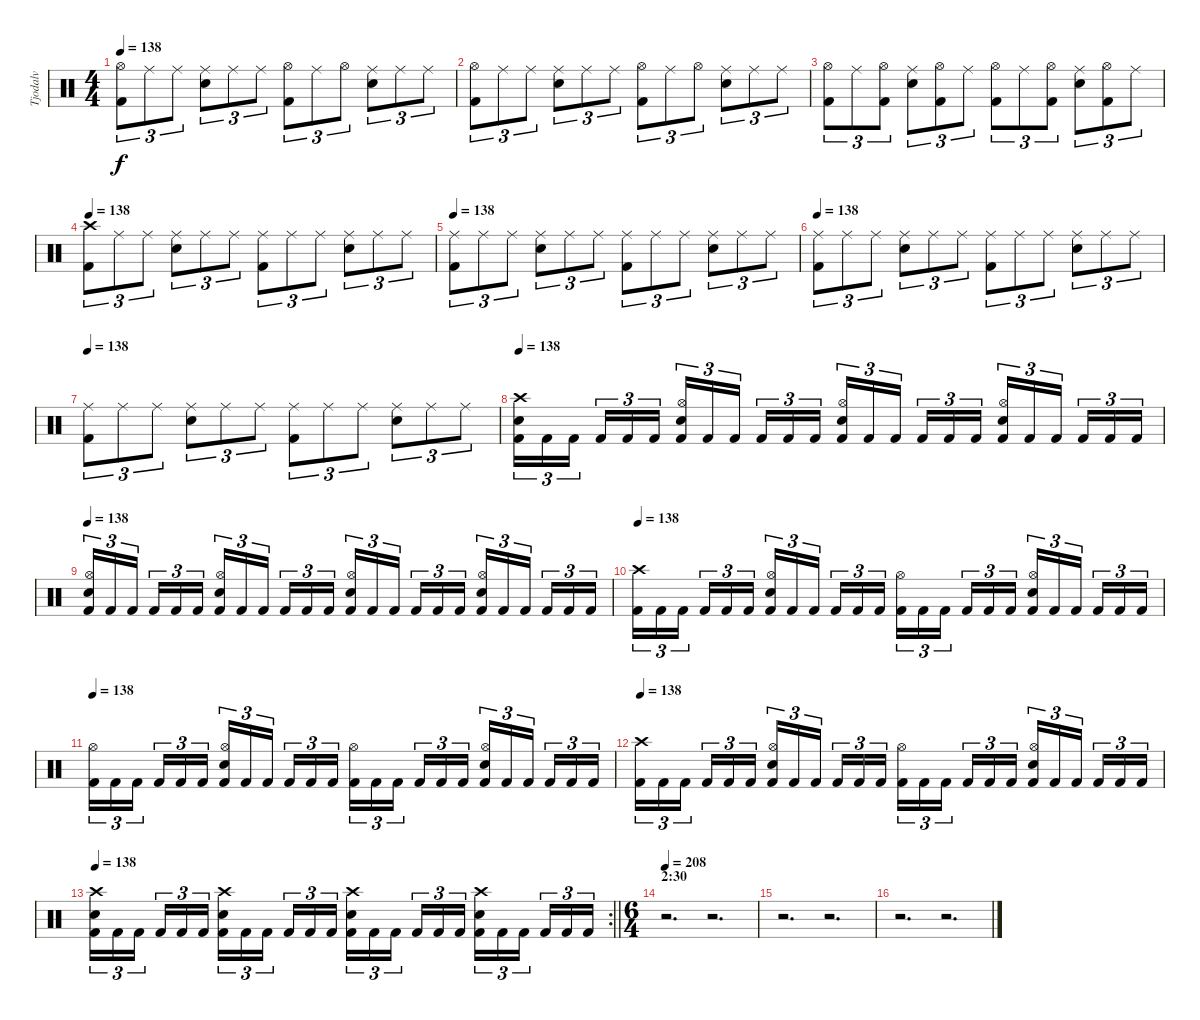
\track ("Tjodalv" "Tjodalv") {instrument percussion}
\staff {score}
\articulation defaults
\ts (4 4)
\tempo 138
\clef neutral
\ks c
("Kick (hit) 2" "Hi-Hat (open)").8{tu (3 2) dy f} "Ride (middle)".8{tu (3 2)} "Ride (middle)".8{tu (3 2)} ("Snare (hit) 2" "Ride (middle)").8{tu (3 2)} "Ride (middle)".8{tu (3 2)} "Ride (middle)".8{tu (3 2)} ("Kick (hit) 2" "Hi-Hat (open)").8{tu (3 2)} "Ride (middle)".8{tu (3 2)} "Hi-Hat (open)".8{tu (3 2)} ("Snare (hit) 2" "Ride (middle)").8{tu (3 2)} "Ride (middle)".8{tu (3 2)} "Ride (middle)".8{tu (3 2)} |
("Kick (hit) 2" "Hi-Hat (open)").8{tu (3 2)} "Ride (middle)".8{tu (3 2)} "Ride (middle)".8{tu (3 2)} ("Snare (hit) 2" "Ride (middle)").8{tu (3 2)} "Ride (middle)".8{tu (3 2)} "Ride (middle)".8{tu (3 2)} ("Kick (hit) 2" "Hi-Hat (open)").8{tu (3 2)} "Ride (middle)".8{tu (3 2)} "Hi-Hat (open)".8{tu (3 2)} ("Snare (hit) 2" "Ride (middle)").8{tu (3 2)} "Ride (middle)".8{tu (3 2)} "Ride (middle)".8{tu (3 2)} |
("Kick (hit) 2" "Hi-Hat (open)").8{tu (3 2)} "Ride (middle)".8{tu (3 2)} ("Kick (hit) 2" "Hi-Hat (open)").8{tu (3 2)} ("Snare (hit) 2" "Ride (middle)").8{tu (3 2)} ("Kick (hit) 2" "Hi-Hat (open)").8{tu (3 2)} "Ride (middle)".8{tu (3 2)} ("Kick (hit) 2" "Hi-Hat (open)").8{tu (3 2)} "Ride (middle)".8{tu (3 2)} ("Kick (hit) 2" "Hi-Hat (open)").8{tu (3 2)} ("Snare (hit) 2" "Ride (middle)").8{tu (3 2)} ("Kick (hit) 2" "Hi-Hat (open)").8{tu (3 2)} "Ride (middle)".8{tu (3 2)} |
\tempo 138
("Kick (hit) 2" "Crash high (hit)").8{tu (3 2)} "Ride (middle)".8{tu (3 2)} "Ride (middle)".8{tu (3 2)} ("Snare (hit) 2" "Ride (middle)").8{tu (3 2)} "Ride (middle)".8{tu (3 2)} "Ride (middle)".8{tu (3 2)} ("Kick (hit) 2" "Ride (middle)").8{tu (3 2)} "Ride (middle)".8{tu (3 2)} "Ride (middle)".8{tu (3 2)} ("Snare (hit) 2" "Ride (middle)").8{tu (3 2)} "Ride (middle)".8{tu (3 2)} "Ride (middle)".8{tu (3 2)} |
\tempo 138
("Kick (hit) 2" "Ride (middle)").8{tu (3 2)} "Ride (middle)".8{tu (3 2)} "Ride (middle)".8{tu (3 2)} ("Snare (hit) 2" "Ride (middle)").8{tu (3 2)} "Ride (middle)".8{tu (3 2)} "Ride (middle)".8{tu (3 2)} ("Kick (hit) 2" "Ride (middle)").8{tu (3 2)} "Ride (middle)".8{tu (3 2)} "Ride (middle)".8{tu (3 2)} ("Snare (hit) 2" "Ride (middle)").8{tu (3 2)} "Ride (middle)".8{tu (3 2)} "Ride (middle)".8{tu (3 2)} |
\tempo 138
("Kick (hit) 2" "Ride (middle)").8{tu (3 2)} "Ride (middle)".8{tu (3 2)} "Ride (middle)".8{tu (3 2)} ("Snare (hit) 2" "Ride (middle)").8{tu (3 2)} "Ride (middle)".8{tu (3 2)} "Ride (middle)".8{tu (3 2)} ("Kick (hit) 2" "Ride (middle)").8{tu (3 2)} "Ride (middle)".8{tu (3 2)} "Ride (middle)".8{tu (3 2)} ("Snare (hit) 2" "Ride (middle)").8{tu (3 2)} "Ride (middle)".8{tu (3 2)} "Ride (middle)".8{tu (3 2)} |
\tempo 138
("Kick (hit) 2" "Ride (middle)").8{tu (3 2)} "Ride (middle)".8{tu (3 2)} "Ride (middle)".8{tu (3 2)} ("Snare (hit) 2" "Ride (middle)").8{tu (3 2)} "Ride (middle)".8{tu (3 2)} "Ride (middle)".8{tu (3 2)} ("Kick (hit) 2" "Ride (middle)").8{tu (3 2)} "Ride (middle)".8{tu (3 2)} "Ride (middle)".8{tu (3 2)} ("Snare (hit) 2" "Ride (middle)").8{tu (3 2)} "Ride (middle)".8{tu (3 2)} "Ride (middle)".8{tu (3 2)} |
\tempo 138
("Kick (hit) 2" "Snare (hit) 2" "Crash high (hit)").16{tu (3 2)} "Kick (hit) 2".16{tu (3 2)} "Kick (hit) 2".16{tu (3 2) beam splitsecondary} "Kick (hit) 2".16{tu (3 2)} "Kick (hit) 2".16{tu (3 2)} "Kick (hit) 2".16{tu (3 2)} ("Kick (hit) 2" "Snare (hit) 2" "Hi-Hat (open)").16{tu (3 2)} "Kick (hit) 2".16{tu (3 2)} "Kick (hit) 2".16{tu (3 2) beam splitsecondary} "Kick (hit) 2".16{tu (3 2)} "Kick (hit) 2".16{tu (3 2)} "Kick (hit) 2".16{tu (3 2)} ("Kick (hit) 2" "Snare (hit) 2" "Hi-Hat (open)").16{tu (3 2)} "Kick (hit) 2".16{tu (3 2)} "Kick (hit) 2".16{tu (3 2) beam splitsecondary} "Kick (hit) 2".16{tu (3 2)} "Kick (hit) 2".16{tu (3 2)} "Kick (hit) 2".16{tu (3 2)} ("Kick (hit) 2" "Snare (hit) 2" "Hi-Hat (open)").16{tu (3 2)} "Kick (hit) 2".16{tu (3 2)} "Kick (hit) 2".16{tu (3 2) beam splitsecondary} "Kick (hit) 2".16{tu (3 2)} "Kick (hit) 2".16{tu (3 2)} "Kick (hit) 2".16{tu (3 2)} |
\tempo 138
("Kick (hit) 2" "Snare (hit) 2" "Hi-Hat (open)").16{tu (3 2)} "Kick (hit) 2".16{tu (3 2)} "Kick (hit) 2".16{tu (3 2) beam splitsecondary} "Kick (hit) 2".16{tu (3 2)} "Kick (hit) 2".16{tu (3 2)} "Kick (hit) 2".16{tu (3 2)} ("Kick (hit) 2" "Snare (hit) 2" "Hi-Hat (open)").16{tu (3 2)} "Kick (hit) 2".16{tu (3 2)} "Kick (hit) 2".16{tu (3 2) beam splitsecondary} "Kick (hit) 2".16{tu (3 2)} "Kick (hit) 2".16{tu (3 2)} "Kick (hit) 2".16{tu (3 2)} ("Kick (hit) 2" "Snare (hit) 2" "Hi-Hat (open)").16{tu (3 2)} "Kick (hit) 2".16{tu (3 2)} "Kick (hit) 2".16{tu (3 2) beam splitsecondary} "Kick (hit) 2".16{tu (3 2)} "Kick (hit) 2".16{tu (3 2)} "Kick (hit) 2".16{tu (3 2)} ("Kick (hit) 2" "Snare (hit) 2" "Hi-Hat (open)").16{tu (3 2)} "Kick (hit) 2".16{tu (3 2)} "Kick (hit) 2".16{tu (3 2) beam splitsecondary} "Kick (hit) 2".16{tu (3 2)} "Kick (hit) 2".16{tu (3 2)} "Kick (hit) 2".16{tu (3 2)} |
\tempo 138
("Kick (hit) 2" "Crash high (hit)").16{tu (3 2)} "Kick (hit) 2".16{tu (3 2)} "Kick (hit) 2".16{tu (3 2) beam splitsecondary} "Kick (hit) 2".16{tu (3 2)} "Kick (hit) 2".16{tu (3 2)} "Kick (hit) 2".16{tu (3 2)} ("Kick (hit) 2" "Snare (hit) 2" "Hi-Hat (open)").16{tu (3 2)} "Kick (hit) 2".16{tu (3 2)} "Kick (hit) 2".16{tu (3 2) beam splitsecondary} "Kick (hit) 2".16{tu (3 2)} "Kick (hit) 2".16{tu (3 2)} "Kick (hit) 2".16{tu (3 2)} ("Kick (hit) 2" "Hi-Hat (open)").16{tu (3 2)} "Kick (hit) 2".16{tu (3 2)} "Kick (hit) 2".16{tu (3 2) beam splitsecondary} "Kick (hit) 2".16{tu (3 2)} "Kick (hit) 2".16{tu (3 2)} "Kick (hit) 2".16{tu (3 2)} ("Kick (hit) 2" "Snare (hit) 2" "Hi-Hat (open)").16{tu (3 2)} "Kick (hit) 2".16{tu (3 2)} "Kick (hit) 2".16{tu (3 2) beam splitsecondary} "Kick (hit) 2".16{tu (3 2)} "Kick (hit) 2".16{tu (3 2)} "Kick (hit) 2".16{tu (3 2)} |
\tempo 138
("Kick (hit) 2" "Hi-Hat (open)").16{tu (3 2)} "Kick (hit) 2".16{tu (3 2)} "Kick (hit) 2".16{tu (3 2) beam splitsecondary} "Kick (hit) 2".16{tu (3 2)} "Kick (hit) 2".16{tu (3 2)} "Kick (hit) 2".16{tu (3 2)} ("Kick (hit) 2" "Snare (hit) 2" "Hi-Hat (open)").16{tu (3 2)} "Kick (hit) 2".16{tu (3 2)} "Kick (hit) 2".16{tu (3 2) beam splitsecondary} "Kick (hit) 2".16{tu (3 2)} "Kick (hit) 2".16{tu (3 2)} "Kick (hit) 2".16{tu (3 2)} ("Kick (hit) 2" "Hi-Hat (open)").16{tu (3 2)} "Kick (hit) 2".16{tu (3 2)} "Kick (hit) 2".16{tu (3 2) beam splitsecondary} "Kick (hit) 2".16{tu (3 2)} "Kick (hit) 2".16{tu (3 2)} "Kick (hit) 2".16{tu (3 2)} ("Kick (hit) 2" "Snare (hit) 2" "Hi-Hat (open)").16{tu (3 2)} "Kick (hit) 2".16{tu (3 2)} "Kick (hit) 2".16{tu (3 2) beam splitsecondary} "Kick (hit) 2".16{tu (3 2)} "Kick (hit) 2".16{tu (3 2)} "Kick (hit) 2".16{tu (3 2)} |
\tempo 138
("Kick (hit) 2" "Crash high (hit)").16{tu (3 2)} "Kick (hit) 2".16{tu (3 2)} "Kick (hit) 2".16{tu (3 2) beam splitsecondary} "Kick (hit) 2".16{tu (3 2)} "Kick (hit) 2".16{tu (3 2)} "Kick (hit) 2".16{tu (3 2)} ("Kick (hit) 2" "Snare (hit) 2" "Hi-Hat (open)").16{tu (3 2)} "Kick (hit) 2".16{tu (3 2)} "Kick (hit) 2".16{tu (3 2) beam splitsecondary} "Kick (hit) 2".16{tu (3 2)} "Kick (hit) 2".16{tu (3 2)} "Kick (hit) 2".16{tu (3 2)} ("Kick (hit) 2" "Hi-Hat (open)").16{tu (3 2)} "Kick (hit) 2".16{tu (3 2)} "Kick (hit) 2".16{tu (3 2) beam splitsecondary} "Kick (hit) 2".16{tu (3 2)} "Kick (hit) 2".16{tu (3 2)} "Kick (hit) 2".16{tu (3 2)} ("Kick (hit) 2" "Snare (hit) 2" "Hi-Hat (open)").16{tu (3 2)} "Kick (hit) 2".16{tu (3 2)} "Kick (hit) 2".16{tu (3 2) beam splitsecondary} "Kick (hit) 2".16{tu (3 2)} "Kick (hit) 2".16{tu (3 2)} "Kick (hit) 2".16{tu (3 2)} |
\rc 2
\tempo 138
\barLineRight lightlight
("Kick (hit) 2" "Snare (hit) 2" "Crash high (hit)").16{tu (3 2)} "Kick (hit) 2".16{tu (3 2)} "Kick (hit) 2".16{tu (3 2) beam splitsecondary} "Kick (hit) 2".16{tu (3 2)} "Kick (hit) 2".16{tu (3 2)} "Kick (hit) 2".16{tu (3 2)} ("Kick (hit) 2" "Snare (hit) 2" "Crash high (hit)").16{tu (3 2)} "Kick (hit) 2".16{tu (3 2)} "Kick (hit) 2".16{tu (3 2) beam splitsecondary} "Kick (hit) 2".16{tu (3 2)} "Kick (hit) 2".16{tu (3 2)} "Kick (hit) 2".16{tu (3 2)} ("Kick (hit) 2" "Snare (hit) 2" "Crash high (hit)").16{tu (3 2)} "Kick (hit) 2".16{tu (3 2)} "Kick (hit) 2".16{tu (3 2) beam splitsecondary} "Kick (hit) 2".16{tu (3 2)} "Kick (hit) 2".16{tu (3 2)} "Kick (hit) 2".16{tu (3 2)} ("Kick (hit) 2" "Snare (hit) 2" "Crash high (hit)").16{tu (3 2)} "Kick (hit) 2".16{tu (3 2)} "Kick (hit) 2".16{tu (3 2) beam splitsecondary} "Kick (hit) 2".16{tu (3 2)} "Kick (hit) 2".16{tu (3 2)} "Kick (hit) 2".16{tu (3 2)} |
\ts (6 4)
\section ("" "2:30")
\tempo 208
r.2{d} r.2{d} |
r.2{d} r.2{d} |
r.2{d} r.2{d}
